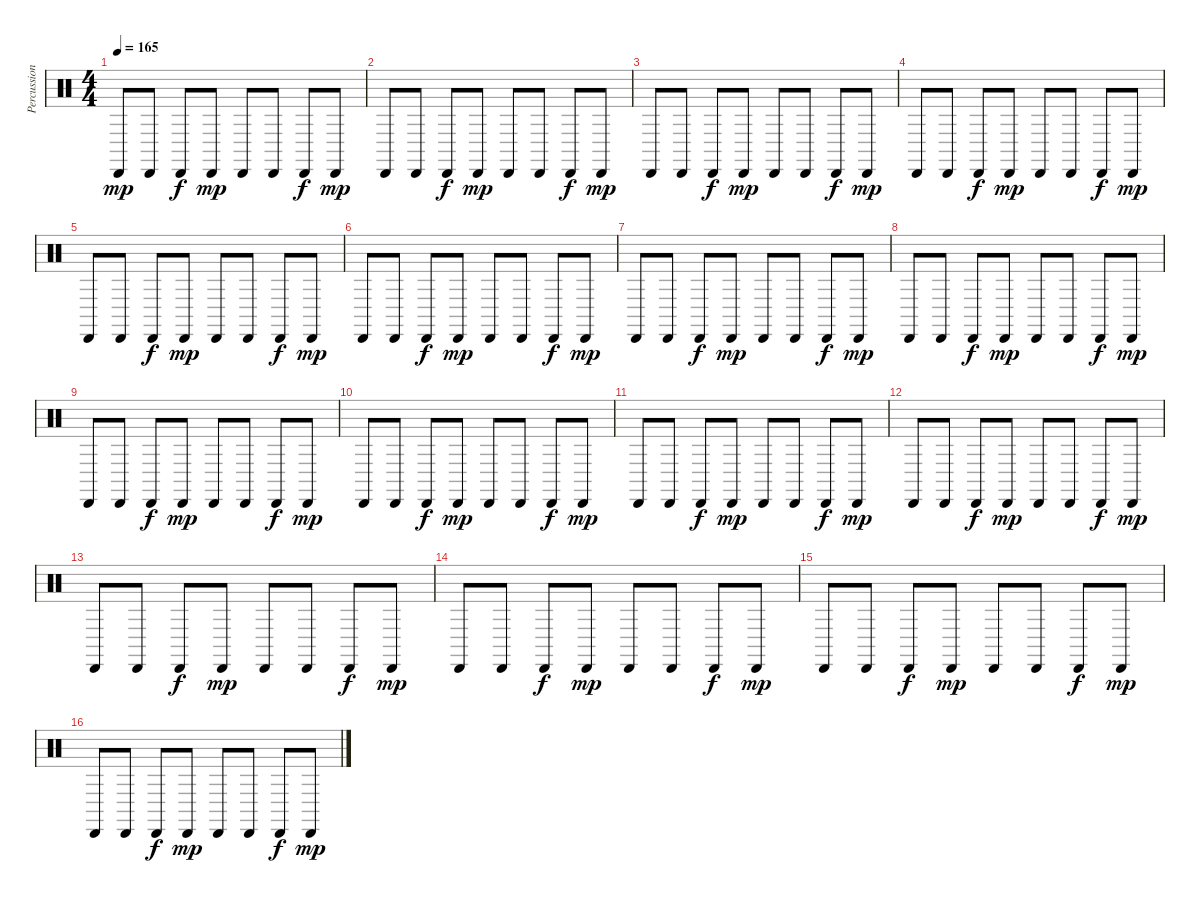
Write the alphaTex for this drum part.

\track ("Percussion" "Percussion") {instrument percussion}
\staff {score}
\articulation defaults
\ts (4 4)
\tempo 165
\clef neutral
\ks c "Cabasa (hit)".8{dy mp} "Cabasa (hit)".8 "Cabasa (hit)".8{dy f} "Cabasa (hit)".8{dy mp} "Cabasa (hit)".8 "Cabasa (hit)".8 "Cabasa (hit)".8{dy f} "Cabasa (hit)".8{dy mp}
|
"Cabasa (hit)".8 "Cabasa (hit)".8 "Cabasa (hit)".8{dy f} "Cabasa (hit)".8{dy mp} "Cabasa (hit)".8 "Cabasa (hit)".8 "Cabasa (hit)".8{dy f} "Cabasa (hit)".8{dy mp} |
"Cabasa (hit)".8 "Cabasa (hit)".8 "Cabasa (hit)".8{dy f} "Cabasa (hit)".8{dy mp} "Cabasa (hit)".8 "Cabasa (hit)".8 "Cabasa (hit)".8{dy f} "Cabasa (hit)".8{dy mp} |
"Cabasa (hit)".8 "Cabasa (hit)".8 "Cabasa (hit)".8{dy f} "Cabasa (hit)".8{dy mp} "Cabasa (hit)".8 "Cabasa (hit)".8 "Cabasa (hit)".8{dy f} "Cabasa (hit)".8{dy mp} |
"Cabasa (hit)".8 "Cabasa (hit)".8 "Cabasa (hit)".8{dy f} "Cabasa (hit)".8{dy mp} "Cabasa (hit)".8 "Cabasa (hit)".8 "Cabasa (hit)".8{dy f} "Cabasa (hit)".8{dy mp} |
"Cabasa (hit)".8 "Cabasa (hit)".8 "Cabasa (hit)".8{dy f} "Cabasa (hit)".8{dy mp} "Cabasa (hit)".8 "Cabasa (hit)".8 "Cabasa (hit)".8{dy f} "Cabasa (hit)".8{dy mp} |
"Cabasa (hit)".8 "Cabasa (hit)".8 "Cabasa (hit)".8{dy f} "Cabasa (hit)".8{dy mp} "Cabasa (hit)".8 "Cabasa (hit)".8 "Cabasa (hit)".8{dy f} "Cabasa (hit)".8{dy mp} |
"Cabasa (hit)".8 "Cabasa (hit)".8 "Cabasa (hit)".8{dy f} "Cabasa (hit)".8{dy mp} "Cabasa (hit)".8 "Cabasa (hit)".8 "Cabasa (hit)".8{dy f} "Cabasa (hit)".8{dy mp} |
"Cabasa (hit)".8 "Cabasa (hit)".8 "Cabasa (hit)".8{dy f} "Cabasa (hit)".8{dy mp} "Cabasa (hit)".8 "Cabasa (hit)".8 "Cabasa (hit)".8{dy f} "Cabasa (hit)".8{dy mp} |
"Cabasa (hit)".8 "Cabasa (hit)".8 "Cabasa (hit)".8{dy f} "Cabasa (hit)".8{dy mp} "Cabasa (hit)".8 "Cabasa (hit)".8 "Cabasa (hit)".8{dy f} "Cabasa (hit)".8{dy mp} |
"Cabasa (hit)".8 "Cabasa (hit)".8 "Cabasa (hit)".8{dy f} "Cabasa (hit)".8{dy mp} "Cabasa (hit)".8 "Cabasa (hit)".8 "Cabasa (hit)".8{dy f} "Cabasa (hit)".8{dy mp} |
"Cabasa (hit)".8 "Cabasa (hit)".8 "Cabasa (hit)".8{dy f} "Cabasa (hit)".8{dy mp} "Cabasa (hit)".8 "Cabasa (hit)".8 "Cabasa (hit)".8{dy f} "Cabasa (hit)".8{dy mp} |
"Cabasa (hit)".8 "Cabasa (hit)".8 "Cabasa (hit)".8{dy f} "Cabasa (hit)".8{dy mp} "Cabasa (hit)".8 "Cabasa (hit)".8 "Cabasa (hit)".8{dy f} "Cabasa (hit)".8{dy mp} |
"Cabasa (hit)".8 "Cabasa (hit)".8 "Cabasa (hit)".8{dy f} "Cabasa (hit)".8{dy mp} "Cabasa (hit)".8 "Cabasa (hit)".8 "Cabasa (hit)".8{dy f} "Cabasa (hit)".8{dy mp} |
"Cabasa (hit)".8 "Cabasa (hit)".8 "Cabasa (hit)".8{dy f} "Cabasa (hit)".8{dy mp} "Cabasa (hit)".8 "Cabasa (hit)".8 "Cabasa (hit)".8{dy f} "Cabasa (hit)".8{dy mp} |
"Cabasa (hit)".8 "Cabasa (hit)".8 "Cabasa (hit)".8{dy f} "Cabasa (hit)".8{dy mp} "Cabasa (hit)".8 "Cabasa (hit)".8 "Cabasa (hit)".8{dy f} "Cabasa (hit)".8{dy mp}
